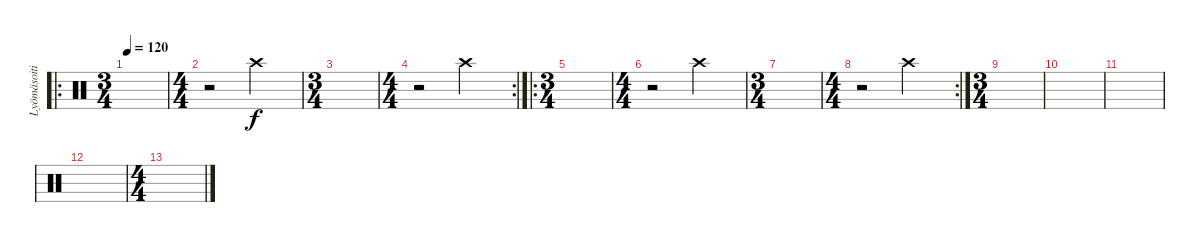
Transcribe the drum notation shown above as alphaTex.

\track ("Lyömäsoitin" "Lyömäsoiti") {instrument percussion}
\staff {score}
\articulation defaults
\ro
\ts (3 4)
\tempo 120
\clef neutral
\ks c
|
\ts (4 4)
r.2 "Crash high (hit)".2 |
\ts (3 4)
|
\rc 2
\ts (4 4)
r.2 "Crash high (hit)".2 |
\ro
\ts (3 4)
|
\ts (4 4)
r.2 "Crash high (hit)".2 |
\ts (3 4)
|
\rc 2
\ts (4 4)
r.2 "Crash high (hit)".2 |
\ts (3 4)
|
|
|
|
\ts (4 4)
